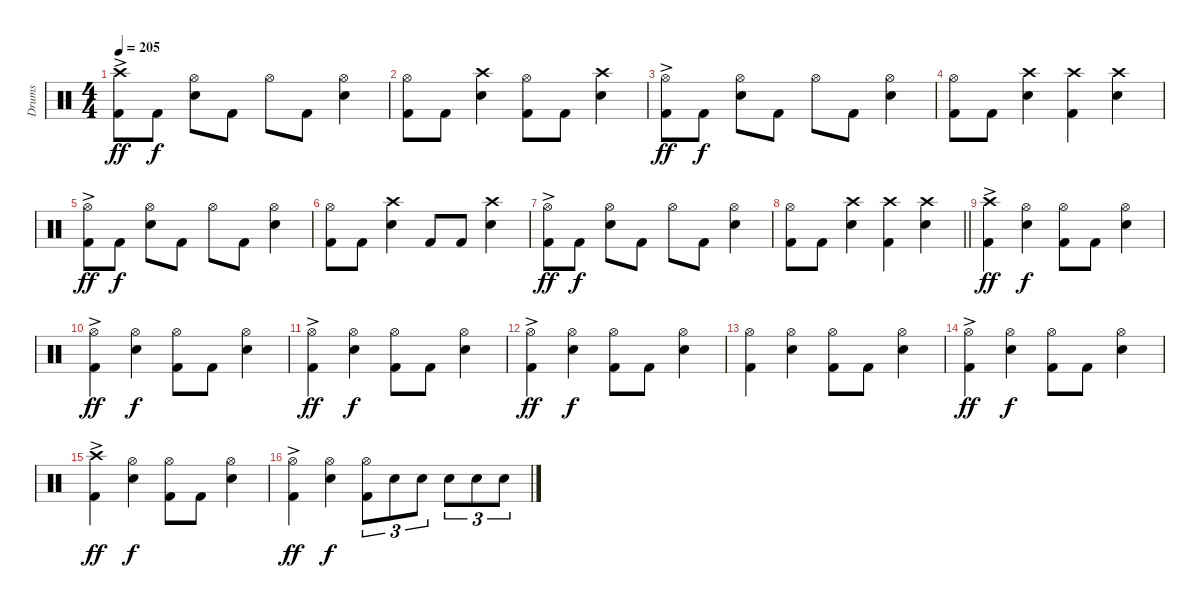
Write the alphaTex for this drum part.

\track ("Drums" "Drums") {instrument percussion}
\staff {score}
\articulation defaults
\ts (4 4)
\tempo 205
\clef neutral
\ks c
("Crash high (hit)"{ac} "Kick (hit) 2").8{dy ff} "Kick (hit) 2".8{dy f} ("Hi-Hat (open)" "Electric Snare (hit)").8 "Kick (hit) 2".8 "Hi-Hat (open)".8 "Kick (hit) 2".8 ("Hi-Hat (open)" "Electric Snare (hit)").4 |
("Hi-Hat (open)" "Kick (hit) 2").8 "Kick (hit) 2".8 ("Crash high (hit)" "Electric Snare (hit)").4 ("Hi-Hat (open)" "Kick (hit) 2").8 "Kick (hit) 2".8 ("Crash high (hit)" "Electric Snare (hit)").4 |
("Hi-Hat (open)"{ac} "Kick (hit) 2").8{dy ff} "Kick (hit) 2".8{dy f} ("Hi-Hat (open)" "Electric Snare (hit)").8 "Kick (hit) 2".8 "Hi-Hat (open)".8 "Kick (hit) 2".8 ("Hi-Hat (open)" "Electric Snare (hit)").4 |
("Hi-Hat (open)" "Kick (hit) 2").8 "Kick (hit) 2".8 ("Crash high (hit)" "Electric Snare (hit)").4 ("Crash high (hit)" "Kick (hit) 2").4 ("Crash high (hit)" "Electric Snare (hit)").4 |
("Hi-Hat (open)"{ac} "Kick (hit) 2").8{dy ff} "Kick (hit) 2".8{dy f} ("Hi-Hat (open)" "Electric Snare (hit)").8 "Kick (hit) 2".8 "Hi-Hat (open)".8 "Kick (hit) 2".8 ("Hi-Hat (open)" "Electric Snare (hit)").4 |
("Hi-Hat (open)" "Kick (hit) 2").8 "Kick (hit) 2".8 ("Crash high (hit)" "Electric Snare (hit)").4 "Kick (hit) 2".8 "Kick (hit) 2".8 ("Crash high (hit)" "Electric Snare (hit)").4 |
("Hi-Hat (open)"{ac} "Kick (hit) 2").8{dy ff} "Kick (hit) 2".8{dy f} ("Hi-Hat (open)" "Electric Snare (hit)").8 "Kick (hit) 2".8 "Hi-Hat (open)".8 "Kick (hit) 2".8 ("Hi-Hat (open)" "Electric Snare (hit)").4 |
\barLineRight lightlight
("Hi-Hat (open)" "Kick (hit) 2").8 "Kick (hit) 2".8 ("Crash high (hit)" "Electric Snare (hit)").4 ("Crash high (hit)" "Kick (hit) 2").4 ("Crash high (hit)" "Electric Snare (hit)").4 |
("Crash high (hit)"{ac} "Kick (hit) 2").4{dy ff} ("Hi-Hat (open)" "Electric Snare (hit)").4{dy f} ("Hi-Hat (open)" "Kick (hit) 2").8 "Kick (hit) 2".8 ("Hi-Hat (open)" "Electric Snare (hit)").4 |
("Hi-Hat (open)"{ac} "Kick (hit) 2").4{dy ff} ("Hi-Hat (open)" "Electric Snare (hit)").4{dy f} ("Hi-Hat (open)" "Kick (hit) 2").8 "Kick (hit) 2".8 ("Hi-Hat (open)" "Electric Snare (hit)").4 |
("Hi-Hat (open)"{ac} "Kick (hit) 2").4{dy ff} ("Hi-Hat (open)" "Electric Snare (hit)").4{dy f} ("Hi-Hat (open)" "Kick (hit) 2").8 "Kick (hit) 2".8 ("Hi-Hat (open)" "Electric Snare (hit)").4 |
("Hi-Hat (open)"{ac} "Kick (hit) 2").4{dy ff} ("Hi-Hat (open)" "Electric Snare (hit)").4{dy f} ("Hi-Hat (open)" "Kick (hit) 2").8 "Kick (hit) 2".8 ("Hi-Hat (open)" "Electric Snare (hit)").4 |
("Hi-Hat (open)" "Kick (hit) 2").4 ("Hi-Hat (open)" "Electric Snare (hit)").4 ("Hi-Hat (open)" "Kick (hit) 2").8 "Kick (hit) 2".8 ("Hi-Hat (open)" "Electric Snare (hit)").4 |
("Hi-Hat (open)"{ac} "Kick (hit) 2").4{dy ff} ("Hi-Hat (open)" "Electric Snare (hit)").4{dy f} ("Hi-Hat (open)" "Kick (hit) 2").8 "Kick (hit) 2".8 ("Hi-Hat (open)" "Electric Snare (hit)").4 |
("Crash high (hit)"{ac} "Kick (hit) 2").4{dy ff} ("Hi-Hat (open)" "Electric Snare (hit)").4{dy f} ("Hi-Hat (open)" "Kick (hit) 2").8 "Kick (hit) 2".8 ("Hi-Hat (open)" "Electric Snare (hit)").4 |
("Hi-Hat (open)"{ac} "Kick (hit) 2").4{dy ff} ("Hi-Hat (open)" "Electric Snare (hit)").4{dy f} ("Hi-Hat (open)" "Kick (hit) 2").8{tu (3 2)} "Electric Snare (hit)".8{tu (3 2)} "Electric Snare (hit)".8{tu (3 2)} "Electric Snare (hit)".8{tu (3 2)} "Electric Snare (hit)".8{tu (3 2)} "Electric Snare (hit)".8{tu (3 2)}
